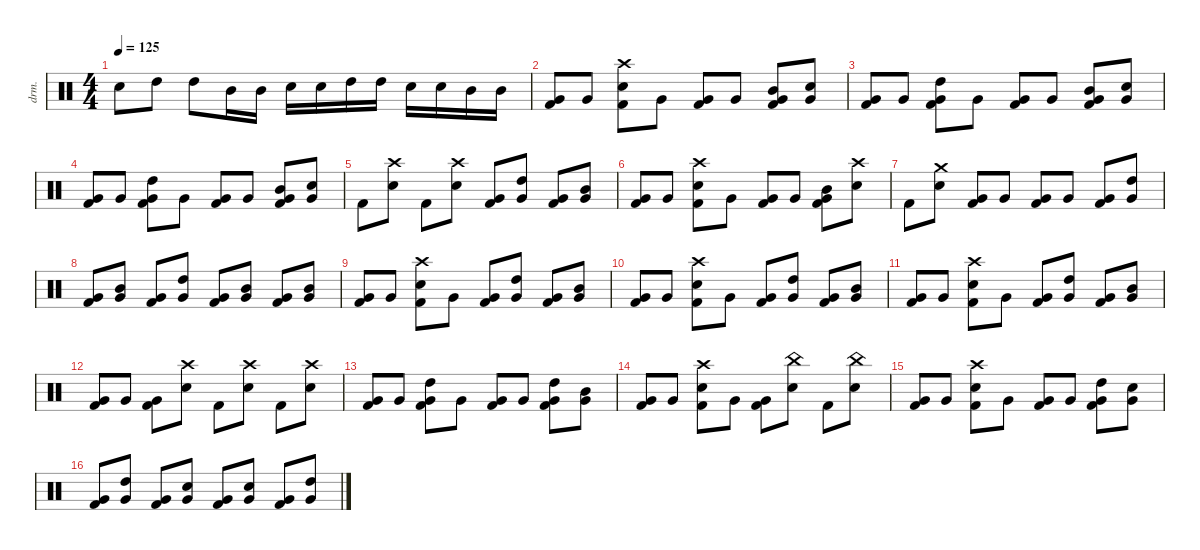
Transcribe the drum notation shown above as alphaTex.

\defaultSystemsLayout 4
\hideDynamics
\bracketExtendMode nobrackets
\otherSystemsTrackNameOrientation horizontal
\track ("Drums" "drm.") {defaultSystemsLayout 4 multiBarRest instrument percussion}
\staff
\articulation defaults
\ts (4 4)
\tempo 125
\clef neutral
\ks c "Snare (hit) 2".8{dy f} "High Tom (hit)".8{dy fff} "High Tom (hit)".8 "Mid Tom (hit)".16 "Mid Tom (hit)".16 "Snare (hit) 2".16{dy f} "Snare (hit) 2".16 "High Tom (hit)".16{dy fff} "High Tom (hit)".16 "Snare (hit) 2".16{dy f} "Snare (hit) 2".16 "Mid Tom (hit)".16{dy fff} "Mid Tom (hit)".16
|
("Kick (hit) 2" "Very Low Tom (hit)").8{dy f} "Very Low Tom (hit)".8 ("Kick (hit) 2" "Crash high (hit)" "Snare (hit) 2").8 "Very Low Tom (hit)".8{dy ff} ("Very Low Tom (hit)" "Kick (hit) 2").8 "Very Low Tom (hit)".8 ("Very Low Tom (hit)" "Kick (hit) 2" "Mid Tom (hit)").8 ("Very Low Tom (hit)" "Snare (hit) 2").8{dy f} |
("Kick (hit) 2" "Very Low Tom (hit)").8{dy ff} "Very Low Tom (hit)".8 ("Very Low Tom (hit)" "Kick (hit) 2" "High Tom (hit)").8 "Very Low Tom (hit)".8 ("Very Low Tom (hit)" "Kick (hit) 2").8 "Very Low Tom (hit)".8 ("Very Low Tom (hit)" "Kick (hit) 2" "Mid Tom (hit)").8 ("Very Low Tom (hit)" "Snare (hit) 2").8{dy f} |
("Kick (hit) 2" "Very Low Tom (hit)").8{dy ff} "Very Low Tom (hit)".8 ("Very Low Tom (hit)" "Kick (hit) 2" "High Tom (hit)").8 "Very Low Tom (hit)".8 ("Very Low Tom (hit)" "Kick (hit) 2").8 "Very Low Tom (hit)".8 ("Very Low Tom (hit)" "Kick (hit) 2" "Mid Tom (hit)").8 ("Very Low Tom (hit)" "Snare (hit) 2").8{dy f} |
"Kick (hit) 2".8 ("Crash high (hit)" "Snare (hit) 2").8 "Kick (hit) 2".8 ("Crash high (hit)" "Snare (hit) 2").8 ("Kick (hit) 2" "Very Low Tom (hit)").8{dy ff} ("Very Low Tom (hit)" "High Tom (hit)").8 ("Kick (hit) 2" "Very Low Tom (hit)").8 ("Very Low Tom (hit)" "Mid Tom (hit)").8 |
("Kick (hit) 2" "Very Low Tom (hit)").8 "Very Low Tom (hit)".8 ("Kick (hit) 2" "Crash high (hit)" "Snare (hit) 2").8{dy f} "Very Low Tom (hit)".8{dy ff} ("Very Low Tom (hit)" "Kick (hit) 2").8 "Very Low Tom (hit)".8 ("Very Low Tom (hit)" "Kick (hit) 2" "Mid Tom (hit)").8 ("Snare (hit) 2" "Crash high (hit)").8{dy f} |
"Kick (hit) 2".8 ("Snare (hit) 2" "Crash medium (hit)").8 ("Kick (hit) 2" "Very Low Tom (hit)").8{dy ff} "Very Low Tom (hit)".8 ("Very Low Tom (hit)" "Kick (hit) 2").8 "Very Low Tom (hit)".8 ("Very Low Tom (hit)" "Kick (hit) 2").8 ("Very Low Tom (hit)" "High Tom (hit)").8 |
("Kick (hit) 2" "Very Low Tom (hit)").8 ("Very Low Tom (hit)" "Mid Tom (hit)").8 ("Kick (hit) 2" "Very Low Tom (hit)").8 ("Very Low Tom (hit)" "High Tom (hit)").8 ("Kick (hit) 2" "Very Low Tom (hit)").8 ("Very Low Tom (hit)" "Mid Tom (hit)").8 ("Kick (hit) 2" "Very Low Tom (hit)").8 ("Very Low Tom (hit)" "Mid Tom (hit)").8 |
("Kick (hit) 2" "Very Low Tom (hit)").8 "Very Low Tom (hit)".8 ("Kick (hit) 2" "Snare (hit) 2" "Crash high (hit)").8{dy f} "Very Low Tom (hit)".8{dy ff} ("Very Low Tom (hit)" "Kick (hit) 2").8 ("Very Low Tom (hit)" "High Tom (hit)").8 ("Very Low Tom (hit)" "Kick (hit) 2").8 ("Very Low Tom (hit)" "Mid Tom (hit)").8 |
("Kick (hit) 2" "Very Low Tom (hit)").8 "Very Low Tom (hit)".8 ("Kick (hit) 2" "Snare (hit) 2" "Crash high (hit)").8{dy f} "Very Low Tom (hit)".8{dy ff} ("Very Low Tom (hit)" "Kick (hit) 2").8 ("Very Low Tom (hit)" "High Tom (hit)").8 ("Very Low Tom (hit)" "Kick (hit) 2").8 ("Very Low Tom (hit)" "Mid Tom (hit)").8 |
("Kick (hit) 2" "Very Low Tom (hit)").8 "Very Low Tom (hit)".8 ("Kick (hit) 2" "Snare (hit) 2" "Crash high (hit)").8{dy f} "Very Low Tom (hit)".8{dy ff} ("Very Low Tom (hit)" "Kick (hit) 2").8 ("Very Low Tom (hit)" "High Tom (hit)").8 ("Very Low Tom (hit)" "Kick (hit) 2").8 ("Very Low Tom (hit)" "Mid Tom (hit)").8 |
("Kick (hit) 2" "Very Low Tom (hit)").8 "Very Low Tom (hit)".8 ("Very Low Tom (hit)" "Kick (hit) 2").8 ("Snare (hit) 2" "Crash high (hit)").8{dy f} "Kick (hit) 2".8 ("Snare (hit) 2" "Crash high (hit)").8 "Kick (hit) 2".8 ("Snare (hit) 2" "Crash high (hit)").8 |
("Kick (hit) 2" "Very Low Tom (hit)").8{dy ff} "Very Low Tom (hit)".8 ("Very Low Tom (hit)" "Kick (hit) 2" "High Tom (hit)").8 "Very Low Tom (hit)".8 ("Very Low Tom (hit)" "Kick (hit) 2").8 "Very Low Tom (hit)".8 ("Very Low Tom (hit)" "Kick (hit) 2" "High Tom (hit)").8 ("Very Low Tom (hit)" "Mid Tom (hit)").8 |
("Kick (hit) 2" "Very Low Tom (hit)").8 "Very Low Tom (hit)".8 ("Kick (hit) 2" "Snare (hit) 2" "Crash high (hit)").8{dy f} "Very Low Tom (hit)".8{dy ff} ("Very Low Tom (hit)" "Kick (hit) 2").8 ("Snare (hit) 2" "China (hit)").8{dy f} "Kick (hit) 2".8 ("Snare (hit) 2" "China (hit)").8 |
("Kick (hit) 2" "Very Low Tom (hit)").8{dy ff} "Very Low Tom (hit)".8 ("Kick (hit) 2" "Snare (hit) 2" "Crash high (hit)").8{dy f} "Very Low Tom (hit)".8{dy ff} ("Very Low Tom (hit)" "Kick (hit) 2").8 "Very Low Tom (hit)".8 ("Very Low Tom (hit)" "Kick (hit) 2" "High Tom (hit)").8 ("Very Low Tom (hit)" "Snare (hit) 2").8{dy f} |
("Kick (hit) 2" "Very Low Tom (hit)").8{dy ff} ("Very Low Tom (hit)" "High Tom (hit)").8 ("Very Low Tom (hit)" "Kick (hit) 2").8 ("Very Low Tom (hit)" "Snare (hit) 2").8{dy f} ("Very Low Tom (hit)" "Kick (hit) 2").8{dy ff} ("Very Low Tom (hit)" "Snare (hit) 2").8{dy f} ("Very Low Tom (hit)" "Kick (hit) 2").8{dy ff} ("Very Low Tom (hit)" "High Tom (hit)").8
